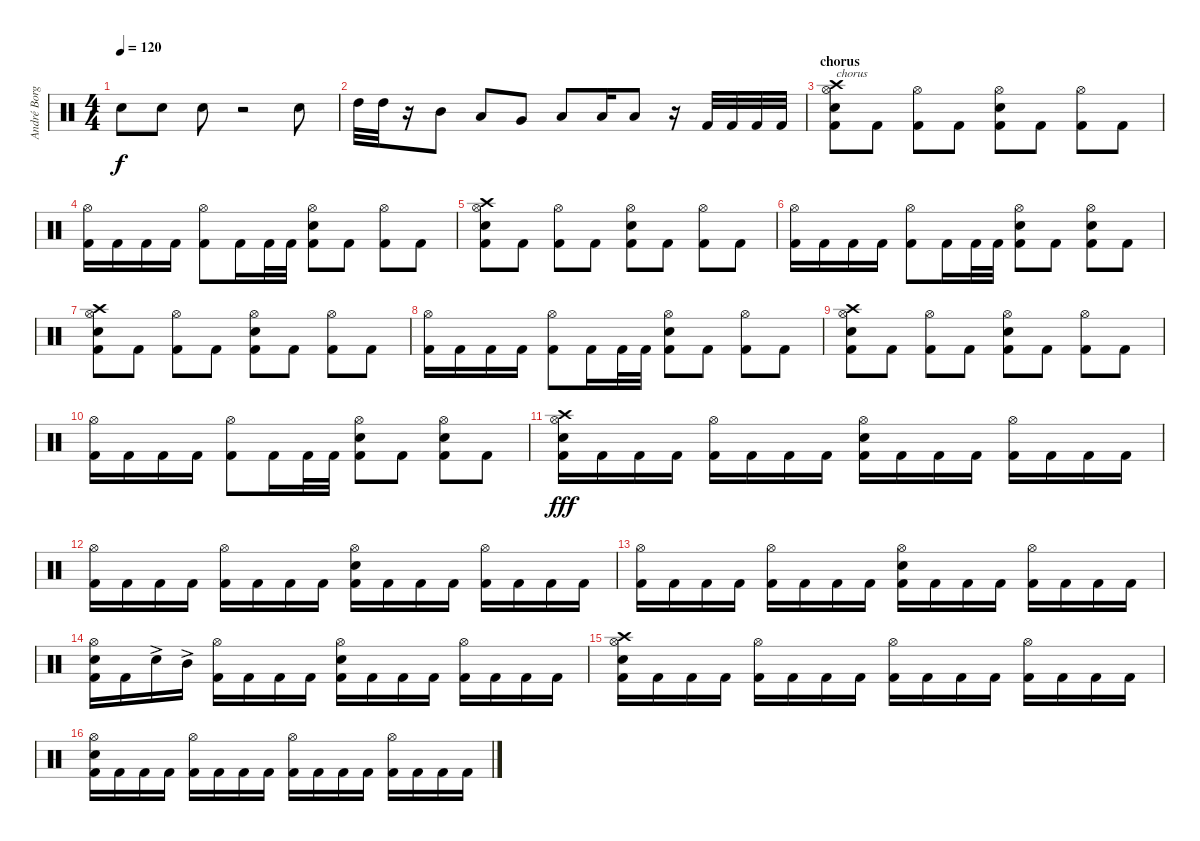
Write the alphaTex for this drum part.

\track ("André Borgman" "André Borg") {instrument percussion}
\staff {score}
\articulation defaults
\ts (4 4)
\tempo 120
\clef neutral
\ks c "Electric Snare (hit)".8{dy f} "Electric Snare (hit)".8 "Electric Snare (hit)".8
r.2 "Electric Snare (hit)".8 |
"High Tom (hit)".32 "High Tom (hit)".32 r.16 "Mid Tom (hit)".8 "Low Tom (hit)".8 "Very Low Tom (hit)".8 "Low Floor Tom (hit)".8 "Low Floor Tom (hit)".16 "Low Floor Tom (hit)".8 r.16 "Kick (hit) 2".32 "Kick (hit) 2".32 "Kick (hit) 2".32 "Kick (hit) 2".32 |
\section ("" "chorus")
("Crash high (hit)" "Hi-Hat (open)" "Electric Snare (hit)" "Kick (hit) 2").8{txt "chorus"} "Kick (hit) 2".8 ("Hi-Hat (open)" "Kick (hit) 2").8 "Kick (hit) 2".8 ("Hi-Hat (open)" "Electric Snare (hit)" "Kick (hit) 2").8 "Kick (hit) 2".8 ("Hi-Hat (open)" "Kick (hit) 2").8 "Kick (hit) 2".8 |
("Hi-Hat (open)" "Kick (hit) 2").16 "Kick (hit) 2".16 "Kick (hit) 2".16 "Kick (hit) 2".16 ("Hi-Hat (open)" "Kick (hit) 2").8 "Kick (hit) 2".16 "Kick (hit) 2".32 "Kick (hit) 2".32 ("Hi-Hat (open)" "Electric Snare (hit)" "Kick (hit) 2").8 "Kick (hit) 2".8 ("Hi-Hat (open)" "Kick (hit) 2").8 "Kick (hit) 2".8 |
("Crash high (hit)" "Hi-Hat (open)" "Electric Snare (hit)" "Kick (hit) 2").8 "Kick (hit) 2".8 ("Hi-Hat (open)" "Kick (hit) 2").8 "Kick (hit) 2".8 ("Hi-Hat (open)" "Electric Snare (hit)" "Kick (hit) 2").8 "Kick (hit) 2".8 ("Hi-Hat (open)" "Kick (hit) 2").8 "Kick (hit) 2".8 |
("Hi-Hat (open)" "Kick (hit) 2").16 "Kick (hit) 2".16 "Kick (hit) 2".16 "Kick (hit) 2".16 ("Hi-Hat (open)" "Kick (hit) 2").8 "Kick (hit) 2".16 "Kick (hit) 2".32 "Kick (hit) 2".32 ("Hi-Hat (open)" "Electric Snare (hit)" "Kick (hit) 2").8 "Kick (hit) 2".8 ("Hi-Hat (open)" "Electric Snare (hit)" "Kick (hit) 2").8 "Kick (hit) 2".8 |
("Crash high (hit)" "Hi-Hat (open)" "Electric Snare (hit)" "Kick (hit) 2").8 "Kick (hit) 2".8 ("Hi-Hat (open)" "Kick (hit) 2").8 "Kick (hit) 2".8 ("Hi-Hat (open)" "Electric Snare (hit)" "Kick (hit) 2").8 "Kick (hit) 2".8 ("Hi-Hat (open)" "Kick (hit) 2").8 "Kick (hit) 2".8 |
("Hi-Hat (open)" "Kick (hit) 2").16 "Kick (hit) 2".16 "Kick (hit) 2".16 "Kick (hit) 2".16 ("Hi-Hat (open)" "Kick (hit) 2").8 "Kick (hit) 2".16 "Kick (hit) 2".32 "Kick (hit) 2".32 ("Hi-Hat (open)" "Electric Snare (hit)" "Kick (hit) 2").8 "Kick (hit) 2".8 ("Hi-Hat (open)" "Kick (hit) 2").8 "Kick (hit) 2".8 |
("Crash high (hit)" "Hi-Hat (open)" "Electric Snare (hit)" "Kick (hit) 2").8 "Kick (hit) 2".8 ("Hi-Hat (open)" "Kick (hit) 2").8 "Kick (hit) 2".8 ("Hi-Hat (open)" "Electric Snare (hit)" "Kick (hit) 2").8 "Kick (hit) 2".8 ("Hi-Hat (open)" "Kick (hit) 2").8 "Kick (hit) 2".8 |
("Hi-Hat (open)" "Kick (hit) 2").16 "Kick (hit) 2".16 "Kick (hit) 2".16 "Kick (hit) 2".16 ("Hi-Hat (open)" "Kick (hit) 2").8 "Kick (hit) 2".16 "Kick (hit) 2".32 "Kick (hit) 2".32 ("Hi-Hat (open)" "Electric Snare (hit)" "Kick (hit) 2").8 "Kick (hit) 2".8 ("Hi-Hat (open)" "Electric Snare (hit)" "Kick (hit) 2").8 "Kick (hit) 2".8 |
("Crash high (hit)" "Hi-Hat (open)" "Electric Snare (hit)" "Kick (hit) 2").16{dy fff} "Kick (hit) 2".16 "Kick (hit) 2".16 "Kick (hit) 2".16 ("Hi-Hat (open)" "Kick (hit) 2").16 "Kick (hit) 2".16 "Kick (hit) 2".16 "Kick (hit) 2".16 ("Hi-Hat (open)" "Electric Snare (hit)" "Kick (hit) 2").16 "Kick (hit) 2".16 "Kick (hit) 2".16 "Kick (hit) 2".16 ("Hi-Hat (open)" "Kick (hit) 2").16 "Kick (hit) 2".16 "Kick (hit) 2".16 "Kick (hit) 2".16 |
("Hi-Hat (open)" "Kick (hit) 2").16 "Kick (hit) 2".16 "Kick (hit) 2".16 "Kick (hit) 2".16 ("Hi-Hat (open)" "Kick (hit) 2").16 "Kick (hit) 2".16 "Kick (hit) 2".16 "Kick (hit) 2".16 ("Hi-Hat (open)" "Electric Snare (hit)" "Kick (hit) 2").16 "Kick (hit) 2".16 "Kick (hit) 2".16 "Kick (hit) 2".16 ("Hi-Hat (open)" "Kick (hit) 2").16 "Kick (hit) 2".16 "Kick (hit) 2".16 "Kick (hit) 2".16 |
("Hi-Hat (open)" "Kick (hit) 2").16 "Kick (hit) 2".16 "Kick (hit) 2".16 "Kick (hit) 2".16 ("Hi-Hat (open)" "Kick (hit) 2").16 "Kick (hit) 2".16 "Kick (hit) 2".16 "Kick (hit) 2".16 ("Hi-Hat (open)" "Electric Snare (hit)" "Kick (hit) 2").16 "Kick (hit) 2".16 "Kick (hit) 2".16 "Kick (hit) 2".16 ("Hi-Hat (open)" "Kick (hit) 2").16 "Kick (hit) 2".16 "Kick (hit) 2".16 "Kick (hit) 2".16 |
("Hi-Hat (open)" "Electric Snare (hit)" "Kick (hit) 2").16 "Kick (hit) 2".16 "Electric Snare (hit)"{ac}.16 "Mid Tom (hit)"{ac}.16 ("Hi-Hat (open)" "Kick (hit) 2").16 "Kick (hit) 2".16 "Kick (hit) 2".16 "Kick (hit) 2".16 ("Hi-Hat (open)" "Electric Snare (hit)" "Kick (hit) 2").16 "Kick (hit) 2".16 "Kick (hit) 2".16 "Kick (hit) 2".16 ("Hi-Hat (open)" "Kick (hit) 2").16 "Kick (hit) 2".16 "Kick (hit) 2".16 "Kick (hit) 2".16 |
("Crash high (hit)" "Hi-Hat (open)" "Electric Snare (hit)" "Kick (hit) 2").16 "Kick (hit) 2".16 "Kick (hit) 2".16 "Kick (hit) 2".16 ("Hi-Hat (open)" "Kick (hit) 2").16 "Kick (hit) 2".16 "Kick (hit) 2".16 "Kick (hit) 2".16 ("Hi-Hat (open)" "Kick (hit) 2").16 "Kick (hit) 2".16 "Kick (hit) 2".16 "Kick (hit) 2".16 ("Hi-Hat (open)" "Kick (hit) 2").16 "Kick (hit) 2".16 "Kick (hit) 2".16 "Kick (hit) 2".16 |
("Hi-Hat (open)" "Electric Snare (hit)" "Kick (hit) 2").16 "Kick (hit) 2".16 "Kick (hit) 2".16 "Kick (hit) 2".16 ("Hi-Hat (open)" "Kick (hit) 2").16 "Kick (hit) 2".16 "Kick (hit) 2".16 "Kick (hit) 2".16 ("Hi-Hat (open)" "Kick (hit) 2").16 "Kick (hit) 2".16 "Kick (hit) 2".16 "Kick (hit) 2".16 ("Hi-Hat (open)" "Kick (hit) 2").16 "Kick (hit) 2".16 "Kick (hit) 2".16 "Kick (hit) 2".16
